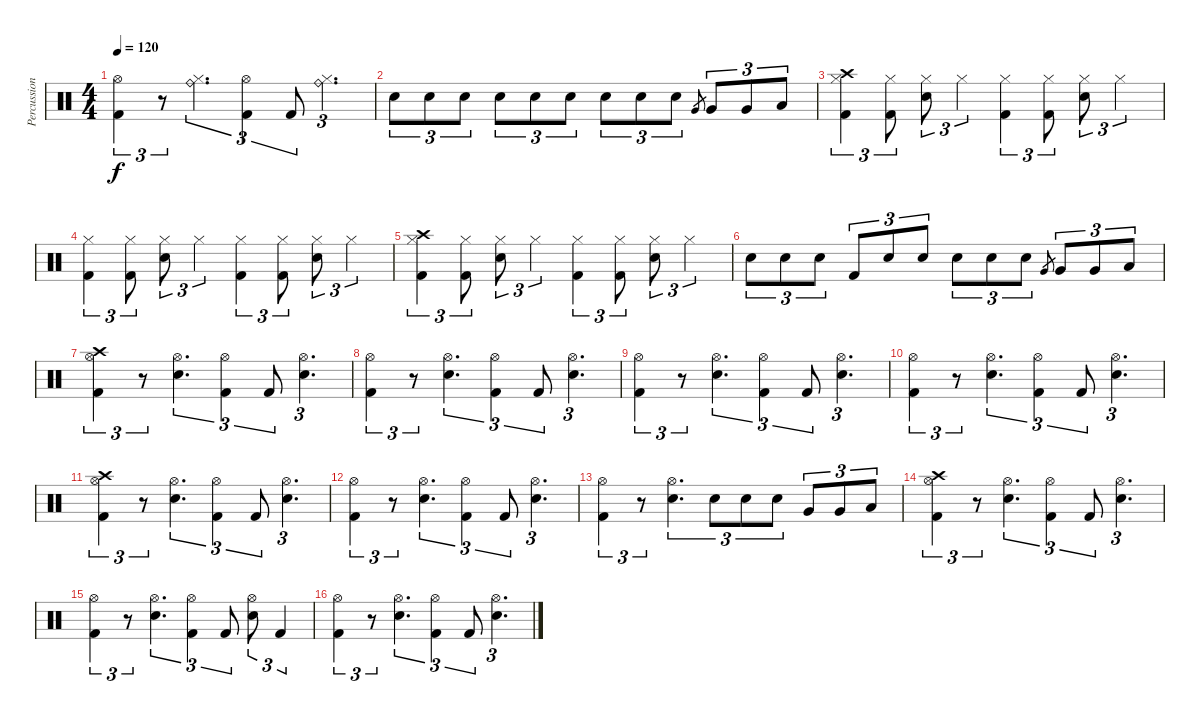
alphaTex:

\track ("Percussion" "Percussion") {instrument percussion}
\staff {score}
\articulation defaults
\ts (4 4)
\tempo 120
\clef neutral
\ks c
("Hi-Hat (open)" "Kick (hit) 2").4{tu (3 2) dy f} r.8{tu (3 2)} ("Ride (bell)" "Hi-Hat (closed)").4{d tu (3 2)} ("Hi-Hat (open)" "Kick (hit) 2").4{tu (3 2)} "Kick (hit) 2".8{tu (3 2)} ("Ride (bell)" "Hi-Hat (closed)").4{d tu (3 2)} |
"Electric Snare (hit)".8{tu (3 2)} "Electric Snare (hit)".8{tu (3 2)} "Electric Snare (hit)".8{tu (3 2)} "Electric Snare (hit)".8{tu (3 2)} "Electric Snare (hit)".8{tu (3 2)} "Electric Snare (hit)".8{tu (3 2)} "Electric Snare (hit)".8{tu (3 2)} "Electric Snare (hit)".8{tu (3 2)} "Electric Snare (hit)".8{tu (3 2)} "Very Low Tom (hit)".8{gr} "Very Low Tom (hit)".8{tu (3 2)} "Very Low Tom (hit)".8{tu (3 2)} "Low Tom (hit)".8{tu (3 2)} |
("Hi-Hat (closed)" "Crash high (hit)" "Kick (hit) 2").4{tu (3 2)} ("Hi-Hat (closed)" "Kick (hit) 2").8{tu (3 2)} ("Hi-Hat (closed)" "Electric Snare (hit)").8{tu (3 2)} "Hi-Hat (closed)".4{tu (3 2)} ("Hi-Hat (closed)" "Kick (hit) 2").4{tu (3 2)} ("Hi-Hat (closed)" "Kick (hit) 2").8{tu (3 2)} ("Hi-Hat (closed)" "Electric Snare (hit)").8{tu (3 2)} "Hi-Hat (closed)".4{tu (3 2)} |
("Hi-Hat (closed)" "Kick (hit) 2").4{tu (3 2)} ("Hi-Hat (closed)" "Kick (hit) 2").8{tu (3 2)} ("Hi-Hat (closed)" "Electric Snare (hit)").8{tu (3 2)} "Hi-Hat (closed)".4{tu (3 2)} ("Hi-Hat (closed)" "Kick (hit) 2").4{tu (3 2)} ("Hi-Hat (closed)" "Kick (hit) 2").8{tu (3 2)} ("Hi-Hat (closed)" "Electric Snare (hit)").8{tu (3 2)} "Hi-Hat (closed)".4{tu (3 2)} |
("Hi-Hat (closed)" "Crash high (hit)" "Kick (hit) 2").4{tu (3 2)} ("Hi-Hat (closed)" "Kick (hit) 2").8{tu (3 2)} ("Hi-Hat (closed)" "Electric Snare (hit)").8{tu (3 2)} "Hi-Hat (closed)".4{tu (3 2)} ("Hi-Hat (closed)" "Kick (hit) 2").4{tu (3 2)} ("Hi-Hat (closed)" "Kick (hit) 2").8{tu (3 2)} ("Hi-Hat (closed)" "Electric Snare (hit)").8{tu (3 2)} "Hi-Hat (closed)".4{tu (3 2)} |
"Electric Snare (hit)".8{tu (3 2)} "Electric Snare (hit)".8{tu (3 2)} "Electric Snare (hit)".8{tu (3 2)} "Kick (hit) 2".8{tu (3 2)} "Electric Snare (hit)".8{tu (3 2)} "Electric Snare (hit)".8{tu (3 2)} "Electric Snare (hit)".8{tu (3 2)} "Electric Snare (hit)".8{tu (3 2)} "Electric Snare (hit)".8{tu (3 2)} "Very Low Tom (hit)".8{gr} "Very Low Tom (hit)".8{tu (3 2)} "Very Low Tom (hit)".8{tu (3 2)} "Low Tom (hit)".8{tu (3 2)} |
("Hi-Hat (open)" "Crash high (hit)" "Kick (hit) 2").4{tu (3 2)} r.8{tu (3 2)} ("Hi-Hat (open)" "Electric Snare (hit)").4{d tu (3 2)} ("Hi-Hat (open)" "Kick (hit) 2").4{tu (3 2)} "Kick (hit) 2".8{tu (3 2)} ("Hi-Hat (open)" "Electric Snare (hit)").4{d tu (3 2)} |
("Hi-Hat (open)" "Kick (hit) 2").4{tu (3 2)} r.8{tu (3 2)} ("Hi-Hat (open)" "Electric Snare (hit)").4{d tu (3 2)} ("Hi-Hat (open)" "Kick (hit) 2").4{tu (3 2)} "Kick (hit) 2".8{tu (3 2)} ("Hi-Hat (open)" "Electric Snare (hit)").4{d tu (3 2)} |
("Hi-Hat (open)" "Kick (hit) 2").4{tu (3 2)} r.8{tu (3 2)} ("Hi-Hat (open)" "Electric Snare (hit)").4{d tu (3 2)} ("Hi-Hat (open)" "Kick (hit) 2").4{tu (3 2)} "Kick (hit) 2".8{tu (3 2)} ("Hi-Hat (open)" "Electric Snare (hit)").4{d tu (3 2)} |
("Hi-Hat (open)" "Kick (hit) 2").4{tu (3 2)} r.8{tu (3 2)} ("Hi-Hat (open)" "Electric Snare (hit)").4{d tu (3 2)} ("Hi-Hat (open)" "Kick (hit) 2").4{tu (3 2)} "Kick (hit) 2".8{tu (3 2)} ("Hi-Hat (open)" "Electric Snare (hit)").4{d tu (3 2)} |
("Hi-Hat (open)" "Crash high (hit)" "Kick (hit) 2").4{tu (3 2)} r.8{tu (3 2)} ("Hi-Hat (open)" "Electric Snare (hit)").4{d tu (3 2)} ("Hi-Hat (open)" "Kick (hit) 2").4{tu (3 2)} "Kick (hit) 2".8{tu (3 2)} ("Hi-Hat (open)" "Electric Snare (hit)").4{d tu (3 2)} |
("Hi-Hat (open)" "Kick (hit) 2").4{tu (3 2)} r.8{tu (3 2)} ("Hi-Hat (open)" "Electric Snare (hit)").4{d tu (3 2)} ("Hi-Hat (open)" "Kick (hit) 2").4{tu (3 2)} "Kick (hit) 2".8{tu (3 2)} ("Hi-Hat (open)" "Electric Snare (hit)").4{d tu (3 2)} |
("Hi-Hat (open)" "Kick (hit) 2").4{tu (3 2)} r.8{tu (3 2)} ("Hi-Hat (open)" "Electric Snare (hit)").4{d tu (3 2)} "Electric Snare (hit)".8{tu (3 2)} "Electric Snare (hit)".8{tu (3 2)} "Electric Snare (hit)".8{tu (3 2)} "Very Low Tom (hit)".8{tu (3 2)} "Very Low Tom (hit)".8{tu (3 2)} "Low Tom (hit)".8{tu (3 2)} |
("Hi-Hat (open)" "Crash high (hit)" "Kick (hit) 2").4{tu (3 2)} r.8{tu (3 2)} ("Hi-Hat (open)" "Electric Snare (hit)").4{d tu (3 2)} ("Hi-Hat (open)" "Kick (hit) 2").4{tu (3 2)} "Kick (hit) 2".8{tu (3 2)} ("Hi-Hat (open)" "Electric Snare (hit)").4{d tu (3 2)} |
("Hi-Hat (open)" "Kick (hit) 2").4{tu (3 2)} r.8{tu (3 2)} ("Hi-Hat (open)" "Electric Snare (hit)").4{d tu (3 2)} ("Hi-Hat (open)" "Kick (hit) 2").4{tu (3 2)} "Kick (hit) 2".8{tu (3 2)} ("Hi-Hat (open)" "Electric Snare (hit)").8{tu (3 2)} "Kick (hit) 2".4{tu (3 2)} |
("Hi-Hat (open)" "Kick (hit) 2").4{tu (3 2)} r.8{tu (3 2)} ("Hi-Hat (open)" "Electric Snare (hit)").4{d tu (3 2)} ("Hi-Hat (open)" "Kick (hit) 2").4{tu (3 2)} "Kick (hit) 2".8{tu (3 2)} ("Hi-Hat (open)" "Electric Snare (hit)").4{d tu (3 2)}
